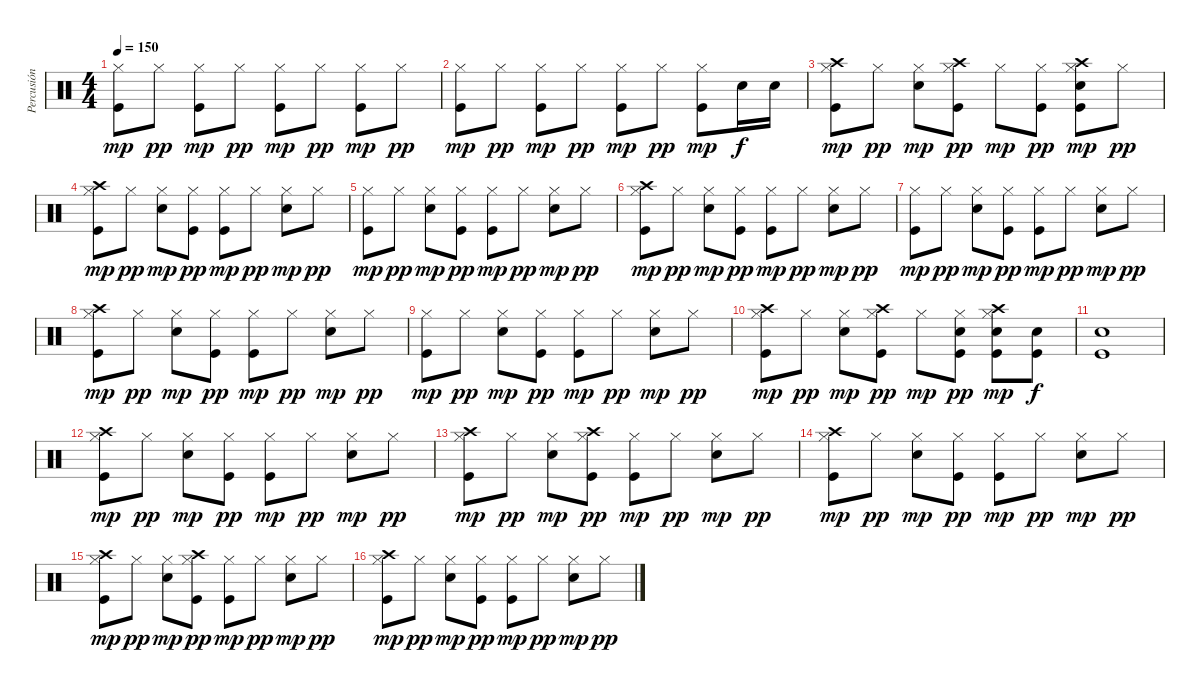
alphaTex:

\track ("Percusión" "Percusión") {instrument percussion}
\staff {score}
\articulation defaults
\ts (4 4)
\tempo 150
\clef neutral
\ks c
("Hi-Hat (closed)" "Kick (hit)").8{dy mp} "Hi-Hat (closed)".8{dy pp} ("Hi-Hat (closed)" "Kick (hit)").8{dy mp} "Hi-Hat (closed)".8{dy pp} ("Hi-Hat (closed)" "Kick (hit)").8{dy mp} "Hi-Hat (closed)".8{dy pp} ("Hi-Hat (closed)" "Kick (hit)").8{dy mp} "Hi-Hat (closed)".8{dy pp} |
("Hi-Hat (closed)" "Kick (hit)").8{dy mp} "Hi-Hat (closed)".8{dy pp} ("Hi-Hat (closed)" "Kick (hit)").8{dy mp} "Hi-Hat (closed)".8{dy pp} ("Hi-Hat (closed)" "Kick (hit)").8{dy mp} "Hi-Hat (closed)".8{dy pp} ("Hi-Hat (closed)" "Kick (hit)").8{dy mp} "Snare (hit) 2".16{dy f} "Snare (hit) 2".16 |
("Crash high (hit)" "Hi-Hat (closed)" "Kick (hit)").8{dy mp} "Hi-Hat (closed)".8{dy pp} ("Hi-Hat (closed)" "Snare (hit) 2").8{dy mp} ("Crash high (hit)" "Hi-Hat (closed)" "Kick (hit)").8{dy pp} "Hi-Hat (closed)".8{dy mp} ("Hi-Hat (closed)" "Kick (hit)").8{dy pp} ("Crash high (hit)" "Hi-Hat (closed)" "Snare (hit) 2" "Kick (hit)").8{dy mp} "Hi-Hat (closed)".8{dy pp} |
("Crash high (hit)" "Hi-Hat (closed)" "Kick (hit)").8{dy mp} "Hi-Hat (closed)".8{dy pp} ("Hi-Hat (closed)" "Snare (hit) 2").8{dy mp} ("Hi-Hat (closed)" "Kick (hit)").8{dy pp} ("Hi-Hat (closed)" "Kick (hit)").8{dy mp} "Hi-Hat (closed)".8{dy pp} ("Hi-Hat (closed)" "Snare (hit) 2").8{dy mp} "Hi-Hat (closed)".8{dy pp} |
("Hi-Hat (closed)" "Kick (hit)").8{dy mp} "Hi-Hat (closed)".8{dy pp} ("Hi-Hat (closed)" "Snare (hit) 2").8{dy mp} ("Hi-Hat (closed)" "Kick (hit)").8{dy pp} ("Hi-Hat (closed)" "Kick (hit)").8{dy mp} "Hi-Hat (closed)".8{dy pp} ("Hi-Hat (closed)" "Snare (hit) 2").8{dy mp} "Hi-Hat (closed)".8{dy pp} |
("Crash high (hit)" "Hi-Hat (closed)" "Kick (hit)").8{dy mp} "Hi-Hat (closed)".8{dy pp} ("Hi-Hat (closed)" "Snare (hit) 2").8{dy mp} ("Hi-Hat (closed)" "Kick (hit)").8{dy pp} ("Hi-Hat (closed)" "Kick (hit)").8{dy mp} "Hi-Hat (closed)".8{dy pp} ("Hi-Hat (closed)" "Snare (hit) 2").8{dy mp} "Hi-Hat (closed)".8{dy pp} |
("Hi-Hat (closed)" "Kick (hit)").8{dy mp} "Hi-Hat (closed)".8{dy pp} ("Hi-Hat (closed)" "Snare (hit) 2").8{dy mp} ("Hi-Hat (closed)" "Kick (hit)").8{dy pp} ("Hi-Hat (closed)" "Kick (hit)").8{dy mp} "Hi-Hat (closed)".8{dy pp} ("Hi-Hat (closed)" "Snare (hit) 2").8{dy mp} "Hi-Hat (closed)".8{dy pp} |
("Crash high (hit)" "Hi-Hat (closed)" "Kick (hit)").8{dy mp} "Hi-Hat (closed)".8{dy pp} ("Hi-Hat (closed)" "Snare (hit) 2").8{dy mp} ("Hi-Hat (closed)" "Kick (hit)").8{dy pp} ("Hi-Hat (closed)" "Kick (hit)").8{dy mp} "Hi-Hat (closed)".8{dy pp} ("Hi-Hat (closed)" "Snare (hit) 2").8{dy mp} "Hi-Hat (closed)".8{dy pp} |
("Hi-Hat (closed)" "Kick (hit)").8{dy mp} "Hi-Hat (closed)".8{dy pp} ("Hi-Hat (closed)" "Snare (hit) 2").8{dy mp} ("Hi-Hat (closed)" "Kick (hit)").8{dy pp} ("Hi-Hat (closed)" "Kick (hit)").8{dy mp} "Hi-Hat (closed)".8{dy pp} ("Hi-Hat (closed)" "Snare (hit) 2").8{dy mp} "Hi-Hat (closed)".8{dy pp} |
("Crash high (hit)" "Hi-Hat (closed)" "Kick (hit)").8{dy mp} "Hi-Hat (closed)".8{dy pp} ("Hi-Hat (closed)" "Snare (hit) 2").8{dy mp} ("Crash high (hit)" "Hi-Hat (closed)" "Kick (hit)").8{dy pp} "Hi-Hat (closed)".8{dy mp} ("Hi-Hat (closed)" "Snare (hit) 2" "Kick (hit)").8{dy pp} ("Crash high (hit)" "Hi-Hat (closed)" "Snare (hit) 2" "Kick (hit)").8{dy mp} ("Snare (hit) 2" "Kick (hit)").8{dy f} |
("Snare (hit) 2" "Kick (hit)").1 |
("Crash high (hit)" "Hi-Hat (closed)" "Kick (hit)").8{dy mp} "Hi-Hat (closed)".8{dy pp} ("Hi-Hat (closed)" "Snare (hit) 2").8{dy mp} ("Hi-Hat (closed)" "Kick (hit)").8{dy pp} ("Hi-Hat (closed)" "Kick (hit)").8{dy mp} "Hi-Hat (closed)".8{dy pp} ("Hi-Hat (closed)" "Snare (hit) 2").8{dy mp} "Hi-Hat (closed)".8{dy pp} |
("Crash high (hit)" "Hi-Hat (closed)" "Kick (hit)").8{dy mp} "Hi-Hat (closed)".8{dy pp} ("Hi-Hat (closed)" "Snare (hit) 2").8{dy mp} ("Crash high (hit)" "Hi-Hat (closed)" "Kick (hit)").8{dy pp} ("Hi-Hat (closed)" "Kick (hit)").8{dy mp} "Hi-Hat (closed)".8{dy pp} ("Hi-Hat (closed)" "Snare (hit) 2").8{dy mp} "Hi-Hat (closed)".8{dy pp} |
("Crash high (hit)" "Hi-Hat (closed)" "Kick (hit)").8{dy mp} "Hi-Hat (closed)".8{dy pp} ("Hi-Hat (closed)" "Snare (hit) 2").8{dy mp} ("Hi-Hat (closed)" "Kick (hit)").8{dy pp} ("Hi-Hat (closed)" "Kick (hit)").8{dy mp} "Hi-Hat (closed)".8{dy pp} ("Hi-Hat (closed)" "Snare (hit) 2").8{dy mp} "Hi-Hat (closed)".8{dy pp} |
("Crash high (hit)" "Hi-Hat (closed)" "Kick (hit)").8{dy mp} "Hi-Hat (closed)".8{dy pp} ("Hi-Hat (closed)" "Snare (hit) 2").8{dy mp} ("Crash high (hit)" "Hi-Hat (closed)" "Kick (hit)").8{dy pp} ("Hi-Hat (closed)" "Kick (hit)").8{dy mp} "Hi-Hat (closed)".8{dy pp} ("Hi-Hat (closed)" "Snare (hit) 2").8{dy mp} "Hi-Hat (closed)".8{dy pp} |
("Crash high (hit)" "Hi-Hat (closed)" "Kick (hit)").8{dy mp} "Hi-Hat (closed)".8{dy pp} ("Hi-Hat (closed)" "Snare (hit) 2").8{dy mp} ("Hi-Hat (closed)" "Kick (hit)").8{dy pp} ("Hi-Hat (closed)" "Kick (hit)").8{dy mp} "Hi-Hat (closed)".8{dy pp} ("Hi-Hat (closed)" "Snare (hit) 2").8{dy mp} "Hi-Hat (closed)".8{dy pp}
